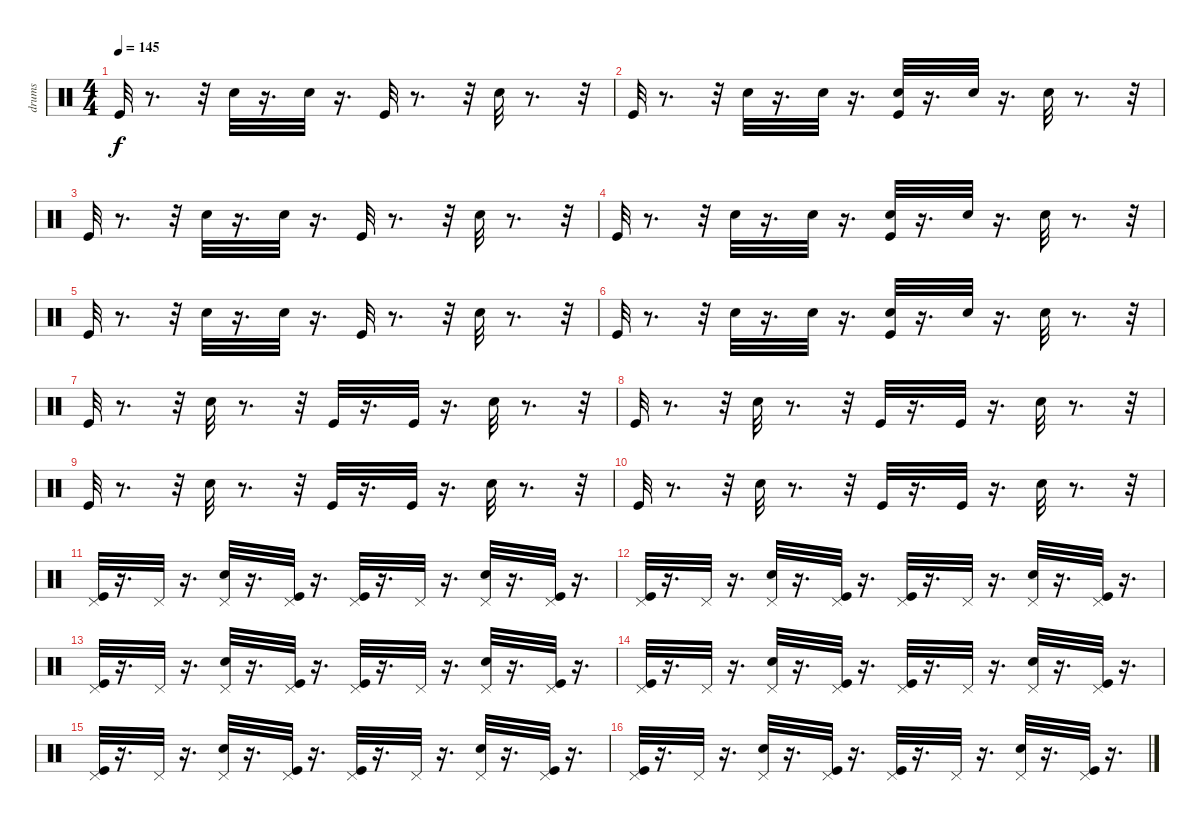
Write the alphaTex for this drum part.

\track ("drums" "drums") {instrument percussion}
\staff {score}
\articulation defaults
\ts (4 4)
\tempo 145
\clef neutral
\ks c "Kick (hit)".32{dy f}
r.8{d} r.32 "Electric Snare (hit)".32 r.16{d} "Electric Snare (hit)".32 r.16{d} "Kick (hit)".32 r.8{d} r.32 "Electric Snare (hit)".32 r.8{d} r.32 |
"Kick (hit)".32 r.8{d} r.32 "Electric Snare (hit)".32 r.16{d} "Electric Snare (hit)".32 r.16{d} ("Hand Clap (hit)" "Kick (hit)").32 r.16{d} "Hand Clap (hit)".32 r.16{d} "Electric Snare (hit)".32 r.8{d} r.32 |
"Kick (hit)".32 r.8{d} r.32 "Electric Snare (hit)".32 r.16{d} "Electric Snare (hit)".32 r.16{d} "Kick (hit)".32 r.8{d} r.32 "Electric Snare (hit)".32 r.8{d} r.32 |
"Kick (hit)".32 r.8{d} r.32 "Electric Snare (hit)".32 r.16{d} "Electric Snare (hit)".32 r.16{d} ("Kick (hit)" "Hand Clap (hit)").32 r.16{d} "Hand Clap (hit)".32 r.16{d} "Electric Snare (hit)".32 r.8{d} r.32 |
"Kick (hit)".32 r.8{d} r.32 "Electric Snare (hit)".32 r.16{d} "Electric Snare (hit)".32 r.16{d} "Kick (hit)".32 r.8{d} r.32 "Electric Snare (hit)".32 r.8{d} r.32 |
"Kick (hit)".32 r.8{d} r.32 "Electric Snare (hit)".32 r.16{d} "Electric Snare (hit)".32 r.16{d} ("Hand Clap (hit)" "Kick (hit)").32 r.16{d} "Hand Clap (hit)".32 r.16{d} "Electric Snare (hit)".32 r.8{d} r.32 |
"Kick (hit)".32 r.8{d} r.32 "Electric Snare (hit)".32 r.8{d} r.32 "Kick (hit)".32 r.16{d} "Kick (hit)".32 r.16{d} "Electric Snare (hit)".32 r.8{d} r.32 |
"Kick (hit)".32 r.8{d} r.32 "Electric Snare (hit)".32 r.8{d} r.32 "Kick (hit)".32 r.16{d} "Kick (hit)".32 r.16{d} "Electric Snare (hit)".32 r.8{d} r.32 |
"Kick (hit)".32 r.8{d} r.32 "Electric Snare (hit)".32 r.8{d} r.32 "Kick (hit)".32 r.16{d} "Kick (hit)".32 r.16{d} "Electric Snare (hit)".32 r.8{d} r.32 |
"Kick (hit)".32 r.8{d} r.32 "Electric Snare (hit)".32 r.8{d} r.32 "Kick (hit)".32 r.16{d} "Kick (hit)".32 r.16{d} "Electric Snare (hit)".32 r.8{d} r.32 |
("Kick (hit)" "Pedal Hi-Hat (hit)").32 r.16{d} "Pedal Hi-Hat (hit)".32 r.16{d} ("Electric Snare (hit)" "Pedal Hi-Hat (hit)").32 r.16{d} ("Pedal Hi-Hat (hit)" "Kick (hit)").32 r.16{d} ("Pedal Hi-Hat (hit)" "Kick (hit)").32 r.16{d} "Pedal Hi-Hat (hit)".32 r.16{d} ("Pedal Hi-Hat (hit)" "Electric Snare (hit)").32 r.16{d} ("Pedal Hi-Hat (hit)" "Kick (hit)").32 r.16{d} |
("Pedal Hi-Hat (hit)" "Kick (hit)").32 r.16{d} "Pedal Hi-Hat (hit)".32 r.16{d} ("Pedal Hi-Hat (hit)" "Electric Snare (hit)").32 r.16{d} ("Pedal Hi-Hat (hit)" "Kick (hit)").32 r.16{d} ("Pedal Hi-Hat (hit)" "Kick (hit)").32 r.16{d} "Pedal Hi-Hat (hit)".32 r.16{d} ("Pedal Hi-Hat (hit)" "Electric Snare (hit)").32 r.16{d} ("Pedal Hi-Hat (hit)" "Kick (hit)").32 r.16{d} |
("Pedal Hi-Hat (hit)" "Kick (hit)").32 r.16{d} "Pedal Hi-Hat (hit)".32 r.16{d} ("Pedal Hi-Hat (hit)" "Electric Snare (hit)").32 r.16{d} ("Pedal Hi-Hat (hit)" "Kick (hit)").32 r.16{d} ("Pedal Hi-Hat (hit)" "Kick (hit)").32 r.16{d} "Pedal Hi-Hat (hit)".32 r.16{d} ("Pedal Hi-Hat (hit)" "Electric Snare (hit)").32 r.16{d} ("Pedal Hi-Hat (hit)" "Kick (hit)").32 r.16{d} |
("Pedal Hi-Hat (hit)" "Kick (hit)").32 r.16{d} "Pedal Hi-Hat (hit)".32 r.16{d} ("Pedal Hi-Hat (hit)" "Electric Snare (hit)").32 r.16{d} ("Pedal Hi-Hat (hit)" "Kick (hit)").32 r.16{d} ("Pedal Hi-Hat (hit)" "Kick (hit)").32 r.16{d} "Pedal Hi-Hat (hit)".32 r.16{d} ("Pedal Hi-Hat (hit)" "Electric Snare (hit)").32 r.16{d} ("Pedal Hi-Hat (hit)" "Kick (hit)").32 r.16{d} |
("Pedal Hi-Hat (hit)" "Kick (hit)").32 r.16{d} "Pedal Hi-Hat (hit)".32 r.16{d} ("Pedal Hi-Hat (hit)" "Electric Snare (hit)").32 r.16{d} ("Pedal Hi-Hat (hit)" "Kick (hit)").32 r.16{d} ("Pedal Hi-Hat (hit)" "Kick (hit)").32 r.16{d} "Pedal Hi-Hat (hit)".32 r.16{d} ("Pedal Hi-Hat (hit)" "Electric Snare (hit)").32 r.16{d} ("Pedal Hi-Hat (hit)" "Kick (hit)").32 r.16{d} |
("Pedal Hi-Hat (hit)" "Kick (hit)").32 r.16{d} "Pedal Hi-Hat (hit)".32 r.16{d} ("Pedal Hi-Hat (hit)" "Electric Snare (hit)").32 r.16{d} ("Pedal Hi-Hat (hit)" "Kick (hit)").32 r.16{d} ("Pedal Hi-Hat (hit)" "Kick (hit)").32 r.16{d} "Pedal Hi-Hat (hit)".32 r.16{d} ("Pedal Hi-Hat (hit)" "Electric Snare (hit)").32 r.16{d} ("Pedal Hi-Hat (hit)" "Kick (hit)").32 r.16{d}
